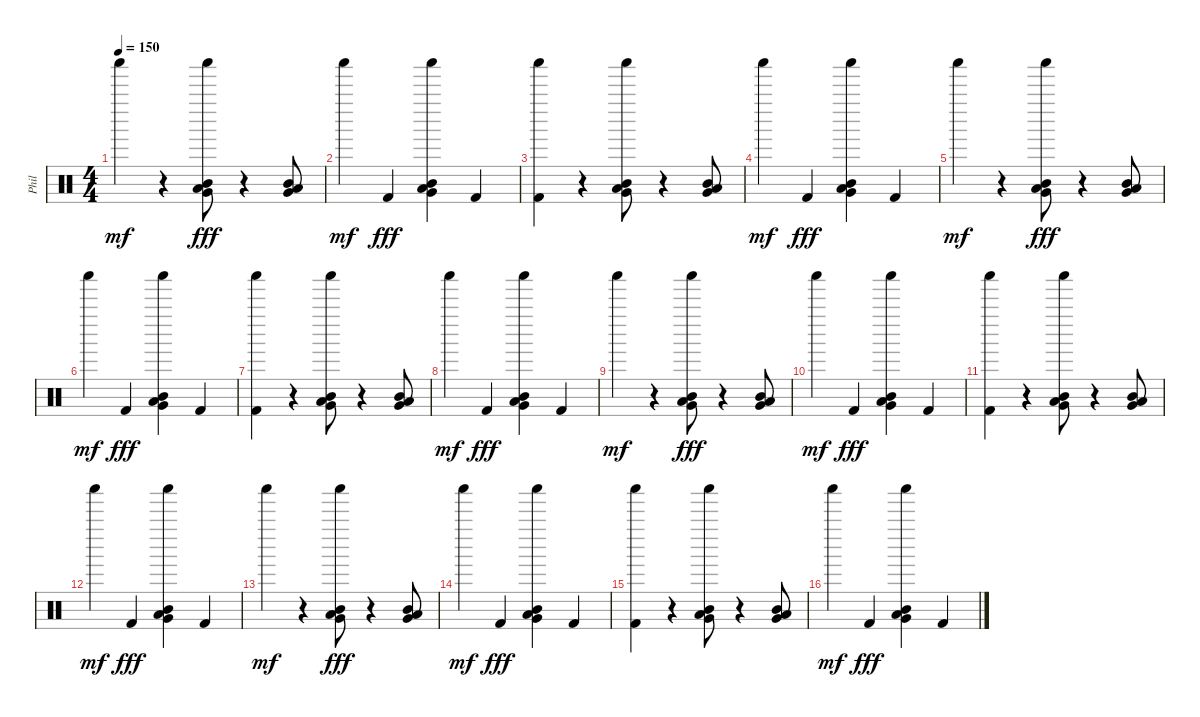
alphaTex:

\track ("Phil" "Phil") {instrument percussion}
\staff {score}
\articulation defaults
\ts (4 4)
\tempo 150
\clef neutral
\ks c "Shaker (hit)".4{dy mf}
r.4 ("Shaker (hit)" "Mid Tom (hit)" "Very Low Tom (hit)" "Low Floor Tom (hit)").8{dy fff} r.4 ("Mid Tom (hit)" "Very Low Tom (hit)" "Low Floor Tom (hit)").8 |
"Shaker (hit)".4{dy mf} "Kick (hit) 2".4{dy fff} ("Shaker (hit)" "Very Low Tom (hit)" "Low Floor Tom (hit)" "Mid Tom (hit)").4 "Kick (hit) 2".4 |
("Shaker (hit)" "Kick (hit) 2").4 r.4 ("Shaker (hit)" "Mid Tom (hit)" "Low Floor Tom (hit)" "Very Low Tom (hit)").8 r.4 ("Very Low Tom (hit)" "Mid Tom (hit)" "Low Floor Tom (hit)").8 |
"Shaker (hit)".4{dy mf} "Kick (hit) 2".4{dy fff} ("Shaker (hit)" "Mid Tom (hit)" "Very Low Tom (hit)" "Low Floor Tom (hit)").4 "Kick (hit) 2".4 |
"Shaker (hit)".4{dy mf} r.4 ("Shaker (hit)" "Mid Tom (hit)" "Very Low Tom (hit)" "Low Floor Tom (hit)").8{dy fff} r.4 ("Mid Tom (hit)" "Very Low Tom (hit)" "Low Floor Tom (hit)").8 |
"Shaker (hit)".4{dy mf} "Kick (hit) 2".4{dy fff} ("Shaker (hit)" "Very Low Tom (hit)" "Low Floor Tom (hit)" "Mid Tom (hit)").4 "Kick (hit) 2".4 |
("Shaker (hit)" "Kick (hit) 2").4 r.4 ("Shaker (hit)" "Mid Tom (hit)" "Low Floor Tom (hit)" "Very Low Tom (hit)").8 r.4 ("Very Low Tom (hit)" "Mid Tom (hit)" "Low Floor Tom (hit)").8 |
"Shaker (hit)".4{dy mf} "Kick (hit) 2".4{dy fff} ("Shaker (hit)" "Mid Tom (hit)" "Very Low Tom (hit)" "Low Floor Tom (hit)").4 "Kick (hit) 2".4 |
"Shaker (hit)".4{dy mf} r.4 ("Shaker (hit)" "Mid Tom (hit)" "Very Low Tom (hit)" "Low Floor Tom (hit)").8{dy fff} r.4 ("Mid Tom (hit)" "Very Low Tom (hit)" "Low Floor Tom (hit)").8 |
"Shaker (hit)".4{dy mf} "Kick (hit) 2".4{dy fff} ("Shaker (hit)" "Very Low Tom (hit)" "Low Floor Tom (hit)" "Mid Tom (hit)").4 "Kick (hit) 2".4 |
("Shaker (hit)" "Kick (hit) 2").4 r.4 ("Shaker (hit)" "Mid Tom (hit)" "Low Floor Tom (hit)" "Very Low Tom (hit)").8 r.4 ("Low Floor Tom (hit)" "Mid Tom (hit)" "Very Low Tom (hit)").8 |
"Shaker (hit)".4{dy mf} "Kick (hit) 2".4{dy fff} ("Shaker (hit)" "Mid Tom (hit)" "Low Floor Tom (hit)" "Very Low Tom (hit)").4 "Kick (hit) 2".4 |
"Shaker (hit)".4{dy mf} r.4 ("Shaker (hit)" "Mid Tom (hit)" "Low Floor Tom (hit)" "Very Low Tom (hit)").8{dy fff} r.4 ("Mid Tom (hit)" "Low Floor Tom (hit)" "Very Low Tom (hit)").8 |
"Shaker (hit)".4{dy mf} "Kick (hit) 2".4{dy fff} ("Shaker (hit)" "Very Low Tom (hit)" "Low Floor Tom (hit)" "Mid Tom (hit)").4 "Kick (hit) 2".4 |
("Shaker (hit)" "Kick (hit) 2").4 r.4 ("Shaker (hit)" "Mid Tom (hit)" "Low Floor Tom (hit)" "Very Low Tom (hit)").8 r.4 ("Very Low Tom (hit)" "Mid Tom (hit)" "Low Floor Tom (hit)").8 |
"Shaker (hit)".4{dy mf} "Kick (hit) 2".4{dy fff} ("Shaker (hit)" "Mid Tom (hit)" "Very Low Tom (hit)" "Low Floor Tom (hit)").4 "Kick (hit) 2".4
